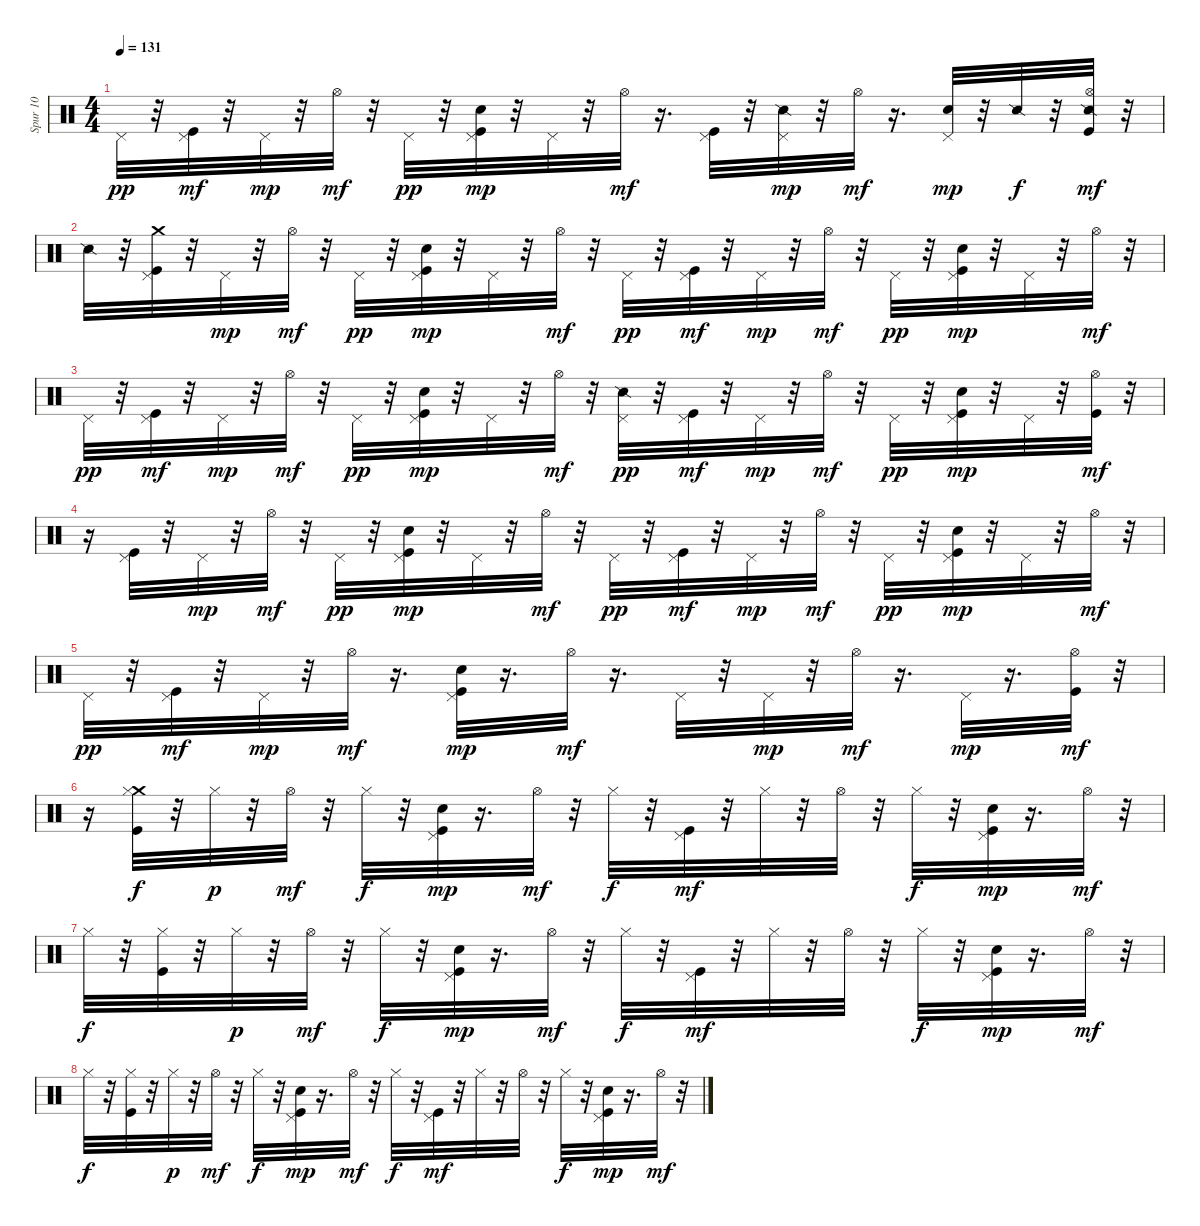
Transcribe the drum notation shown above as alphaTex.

\track ("Spur 10" "Spur 10") {instrument percussion}
\staff {score}
\articulation defaults
\ts (4 4)
\tempo 131
\clef neutral
\ks c "Pedal Hi-Hat (hit)".32{dy pp}
r.32 ("Kick (hit)" "Pedal Hi-Hat (hit)").32{dy mf} r.32 "Pedal Hi-Hat (hit)".32{dy mp} r.32 "Hi-Hat (open)".32{dy mf} r.32 "Pedal Hi-Hat (hit)".32{dy pp} r.32 ("Kick (hit)" "Hand Clap (hit)" "Pedal Hi-Hat (hit)").32{dy mp} r.32 "Pedal Hi-Hat (hit)".32 r.32 "Hi-Hat (open)".32{dy mf} r.16{d} ("Kick (hit)" "Pedal Hi-Hat (hit)").32 r.32 ("Snare (side stick) 2" "Pedal Hi-Hat (hit)").32{dy mp} r.32 "Hi-Hat (open)".32{dy mf} r.16{d} ("Hand Clap (hit)" "Pedal Hi-Hat (hit)").32{dy mp} r.32 "Snare (side stick) 2".32{dy f} r.32 ("Snare (side stick) 2" "Kick (hit)" "Hi-Hat (open)").32{dy mf} r.32 |
"Snare (side stick) 2".32 r.32 ("Crash medium (hit)" "Kick (hit)" "Pedal Hi-Hat (hit)").32 r.32 "Pedal Hi-Hat (hit)".32{dy mp} r.32 "Hi-Hat (open)".32{dy mf} r.32 "Pedal Hi-Hat (hit)".32{dy pp} r.32 ("Kick (hit)" "Hand Clap (hit)" "Pedal Hi-Hat (hit)").32{dy mp} r.32 "Pedal Hi-Hat (hit)".32 r.32 "Hi-Hat (open)".32{dy mf} r.32 "Pedal Hi-Hat (hit)".32{dy pp} r.32 ("Kick (hit)" "Pedal Hi-Hat (hit)").32{dy mf} r.32 "Pedal Hi-Hat (hit)".32{dy mp} r.32 "Hi-Hat (open)".32{dy mf} r.32 "Pedal Hi-Hat (hit)".32{dy pp} r.32 ("Kick (hit)" "Hand Clap (hit)" "Pedal Hi-Hat (hit)").32{dy mp} r.32 "Pedal Hi-Hat (hit)".32 r.32 "Hi-Hat (open)".32{dy mf} r.32 |
"Pedal Hi-Hat (hit)".32{dy pp} r.32 ("Kick (hit)" "Pedal Hi-Hat (hit)").32{dy mf} r.32 "Pedal Hi-Hat (hit)".32{dy mp} r.32 "Hi-Hat (open)".32{dy mf} r.32 "Pedal Hi-Hat (hit)".32{dy pp} r.32 ("Kick (hit)" "Hand Clap (hit)" "Pedal Hi-Hat (hit)").32{dy mp} r.32 "Pedal Hi-Hat (hit)".32 r.32 "Hi-Hat (open)".32{dy mf} r.32 ("Pedal Hi-Hat (hit)" "Snare (side stick) 2").32{dy pp} r.32 ("Kick (hit)" "Pedal Hi-Hat (hit)").32{dy mf} r.32 "Pedal Hi-Hat (hit)".32{dy mp} r.32 "Hi-Hat (open)".32{dy mf} r.32 "Pedal Hi-Hat (hit)".32{dy pp} r.32 ("Kick (hit)" "Hand Clap (hit)" "Pedal Hi-Hat (hit)").32{dy mp} r.32 "Pedal Hi-Hat (hit)".32 r.32 ("Kick (hit)" "Hi-Hat (open)").32{dy mf} r.32 |
r.16 ("Kick (hit)" "Pedal Hi-Hat (hit)").32 r.32 "Pedal Hi-Hat (hit)".32{dy mp} r.32 "Hi-Hat (open)".32{dy mf} r.32 "Pedal Hi-Hat (hit)".32{dy pp} r.32 ("Kick (hit)" "Hand Clap (hit)" "Pedal Hi-Hat (hit)").32{dy mp} r.32 "Pedal Hi-Hat (hit)".32 r.32 "Hi-Hat (open)".32{dy mf} r.32 "Pedal Hi-Hat (hit)".32{dy pp} r.32 ("Kick (hit)" "Pedal Hi-Hat (hit)").32{dy mf} r.32 "Pedal Hi-Hat (hit)".32{dy mp} r.32 "Hi-Hat (open)".32{dy mf} r.32 "Pedal Hi-Hat (hit)".32{dy pp} r.32 ("Kick (hit)" "Hand Clap (hit)" "Pedal Hi-Hat (hit)").32{dy mp} r.32 "Pedal Hi-Hat (hit)".32 r.32 "Hi-Hat (open)".32{dy mf} r.32 |
"Pedal Hi-Hat (hit)".32{dy pp} r.32 ("Kick (hit)" "Pedal Hi-Hat (hit)").32{dy mf} r.32 "Pedal Hi-Hat (hit)".32{dy mp} r.32 "Hi-Hat (open)".32{dy mf} r.16{d} ("Kick (hit)" "Hand Clap (hit)" "Pedal Hi-Hat (hit)").32{dy mp} r.16{d} "Hi-Hat (open)".32{dy mf} r.16{d} "Pedal Hi-Hat (hit)".32 r.32 "Pedal Hi-Hat (hit)".32{dy mp} r.32 "Hi-Hat (open)".32{dy mf} r.16{d} "Pedal Hi-Hat (hit)".32{dy mp} r.16{d} ("Kick (hit)" "Hi-Hat (open)").32{dy mf} r.32 |
r.16 ("Crash medium (hit)" "Kick (hit)" "Hi-Hat (closed)").32{dy f} r.32 "Hi-Hat (closed)".32{dy p} r.32 "Hi-Hat (open)".32{dy mf} r.32 "Hi-Hat (closed)".32{dy f} r.32 ("Kick (hit)" "Hand Clap (hit)" "Pedal Hi-Hat (hit)").32{dy mp} r.16{d} "Hi-Hat (open)".32{dy mf} r.32 "Hi-Hat (closed)".32{dy f} r.32 ("Kick (hit)" "Pedal Hi-Hat (hit)").32{dy mf} r.32 "Hi-Hat (closed)".32 r.32 "Hi-Hat (open)".32 r.32 "Hi-Hat (closed)".32{dy f} r.32 ("Kick (hit)" "Hand Clap (hit)" "Pedal Hi-Hat (hit)").32{dy mp} r.16{d} "Hi-Hat (open)".32{dy mf} r.32 |
"Hi-Hat (closed)".32{dy f} r.32 ("Kick (hit)" "Hi-Hat (closed)").32 r.32 "Hi-Hat (closed)".32{dy p} r.32 "Hi-Hat (open)".32{dy mf} r.32 "Hi-Hat (closed)".32{dy f} r.32 ("Kick (hit)" "Hand Clap (hit)" "Pedal Hi-Hat (hit)").32{dy mp} r.16{d} "Hi-Hat (open)".32{dy mf} r.32 "Hi-Hat (closed)".32{dy f} r.32 ("Kick (hit)" "Pedal Hi-Hat (hit)").32{dy mf} r.32 "Hi-Hat (closed)".32 r.32 "Hi-Hat (open)".32 r.32 "Hi-Hat (closed)".32{dy f} r.32 ("Kick (hit)" "Hand Clap (hit)" "Pedal Hi-Hat (hit)").32{dy mp} r.16{d} "Hi-Hat (open)".32{dy mf} r.32 |
"Hi-Hat (closed)".32{dy f} r.32 ("Kick (hit)" "Hi-Hat (closed)").32 r.32 "Hi-Hat (closed)".32{dy p} r.32 "Hi-Hat (open)".32{dy mf} r.32 "Hi-Hat (closed)".32{dy f} r.32 ("Kick (hit)" "Hand Clap (hit)" "Pedal Hi-Hat (hit)").32{dy mp} r.16{d} "Hi-Hat (open)".32{dy mf} r.32 "Hi-Hat (closed)".32{dy f} r.32 ("Kick (hit)" "Pedal Hi-Hat (hit)").32{dy mf} r.32 "Hi-Hat (closed)".32 r.32 "Hi-Hat (open)".32 r.32 "Hi-Hat (closed)".32{dy f} r.32 ("Kick (hit)" "Hand Clap (hit)" "Pedal Hi-Hat (hit)").32{dy mp} r.16{d} "Hi-Hat (open)".32{dy mf} r.32
